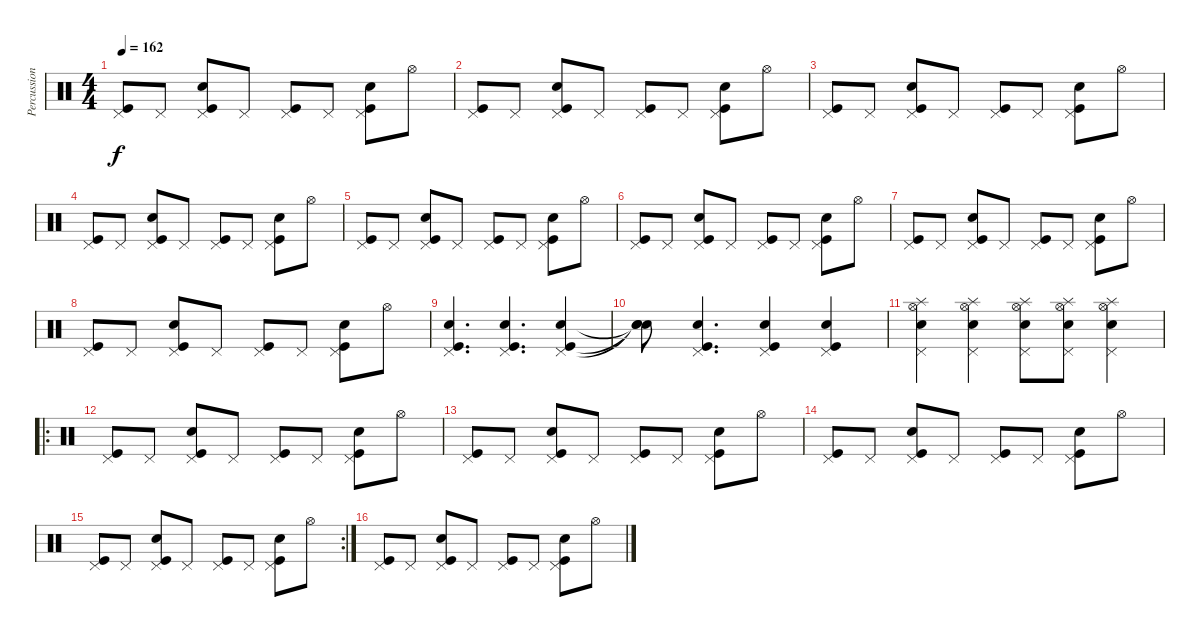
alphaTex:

\track ("Percussion" "Percussion") {instrument percussion}
\staff {score}
\articulation defaults
\ts (4 4)
\tempo 162
\clef neutral
\ks c
("Pedal Hi-Hat (hit)" "Kick (hit)").8{dy f} "Pedal Hi-Hat (hit)".8 ("Pedal Hi-Hat (hit)" "Snare (hit) 2" "Kick (hit)").8 "Pedal Hi-Hat (hit)".8 ("Pedal Hi-Hat (hit)" "Kick (hit)").8 "Pedal Hi-Hat (hit)".8 ("Pedal Hi-Hat (hit)" "Snare (hit) 2" "Kick (hit)").8 "Hi-Hat (open)".8 |
("Pedal Hi-Hat (hit)" "Kick (hit)").8 "Pedal Hi-Hat (hit)".8 ("Pedal Hi-Hat (hit)" "Snare (hit) 2" "Kick (hit)").8 "Pedal Hi-Hat (hit)".8 ("Pedal Hi-Hat (hit)" "Kick (hit)").8 "Pedal Hi-Hat (hit)".8 ("Pedal Hi-Hat (hit)" "Snare (hit) 2" "Kick (hit)").8 "Hi-Hat (open)".8 |
("Pedal Hi-Hat (hit)" "Kick (hit)").8 "Pedal Hi-Hat (hit)".8 ("Pedal Hi-Hat (hit)" "Snare (hit) 2" "Kick (hit)").8 "Pedal Hi-Hat (hit)".8 ("Pedal Hi-Hat (hit)" "Kick (hit)").8 "Pedal Hi-Hat (hit)".8 ("Pedal Hi-Hat (hit)" "Snare (hit) 2" "Kick (hit)").8 "Hi-Hat (open)".8 |
("Pedal Hi-Hat (hit)" "Kick (hit)").8 "Pedal Hi-Hat (hit)".8 ("Pedal Hi-Hat (hit)" "Snare (hit) 2" "Kick (hit)").8 "Pedal Hi-Hat (hit)".8 ("Pedal Hi-Hat (hit)" "Kick (hit)").8 "Pedal Hi-Hat (hit)".8 ("Pedal Hi-Hat (hit)" "Snare (hit) 2" "Kick (hit)").8 "Hi-Hat (open)".8 |
("Pedal Hi-Hat (hit)" "Kick (hit)").8 "Pedal Hi-Hat (hit)".8 ("Pedal Hi-Hat (hit)" "Snare (hit) 2" "Kick (hit)").8 "Pedal Hi-Hat (hit)".8 ("Pedal Hi-Hat (hit)" "Kick (hit)").8 "Pedal Hi-Hat (hit)".8 ("Pedal Hi-Hat (hit)" "Snare (hit) 2" "Kick (hit)").8 "Hi-Hat (open)".8 |
("Pedal Hi-Hat (hit)" "Kick (hit)").8 "Pedal Hi-Hat (hit)".8 ("Pedal Hi-Hat (hit)" "Snare (hit) 2" "Kick (hit)").8 "Pedal Hi-Hat (hit)".8 ("Pedal Hi-Hat (hit)" "Kick (hit)").8 "Pedal Hi-Hat (hit)".8 ("Pedal Hi-Hat (hit)" "Snare (hit) 2" "Kick (hit)").8 "Hi-Hat (open)".8 |
("Pedal Hi-Hat (hit)" "Kick (hit)").8 "Pedal Hi-Hat (hit)".8 ("Pedal Hi-Hat (hit)" "Snare (hit) 2" "Kick (hit)").8 "Pedal Hi-Hat (hit)".8 ("Pedal Hi-Hat (hit)" "Kick (hit)").8 "Pedal Hi-Hat (hit)".8 ("Pedal Hi-Hat (hit)" "Snare (hit) 2" "Kick (hit)").8 "Hi-Hat (open)".8 |
("Pedal Hi-Hat (hit)" "Kick (hit)").8 "Pedal Hi-Hat (hit)".8 ("Pedal Hi-Hat (hit)" "Snare (hit) 2" "Kick (hit)").8 "Pedal Hi-Hat (hit)".8 ("Pedal Hi-Hat (hit)" "Kick (hit)").8 "Pedal Hi-Hat (hit)".8 ("Pedal Hi-Hat (hit)" "Snare (hit) 2" "Kick (hit)").8 "Hi-Hat (open)".8 |
("Pedal Hi-Hat (hit)" "Snare (hit) 2" "Kick (hit)").4{d} ("Pedal Hi-Hat (hit)" "Snare (hit) 2" "Kick (hit)").4{d} ("Pedal Hi-Hat (hit)" "Snare (hit) 2" "Kick (hit)").4 |
("Snare (hit)"{t} "Snare (hit)"{t} "Snare (hit)"{t}).8 ("Pedal Hi-Hat (hit)" "Snare (hit) 2" "Kick (hit)").4{d} ("Pedal Hi-Hat (hit)" "Snare (hit) 2" "Kick (hit)").4 ("Pedal Hi-Hat (hit)" "Snare (hit) 2" "Kick (hit)").4 |
("Pedal Hi-Hat (hit)" "Snare (hit) 2" "Hi-Hat (open)" "Splash (hit)").4 ("Pedal Hi-Hat (hit)" "Snare (hit) 2" "Hi-Hat (open)" "Splash (hit)").4 ("Pedal Hi-Hat (hit)" "Snare (hit) 2" "Hi-Hat (open)" "Splash (hit)").8 ("Pedal Hi-Hat (hit)" "Snare (hit) 2" "Hi-Hat (open)" "Splash (hit)").8 ("Pedal Hi-Hat (hit)" "Snare (hit) 2" "Hi-Hat (open)" "Splash (hit)").4 |
\ro
("Pedal Hi-Hat (hit)" "Kick (hit)").8 "Pedal Hi-Hat (hit)".8 ("Pedal Hi-Hat (hit)" "Snare (hit) 2" "Kick (hit)").8 "Pedal Hi-Hat (hit)".8 ("Pedal Hi-Hat (hit)" "Kick (hit)").8 "Pedal Hi-Hat (hit)".8 ("Pedal Hi-Hat (hit)" "Snare (hit) 2" "Kick (hit)").8 "Hi-Hat (open)".8 |
("Pedal Hi-Hat (hit)" "Kick (hit)").8 "Pedal Hi-Hat (hit)".8 ("Pedal Hi-Hat (hit)" "Snare (hit) 2" "Kick (hit)").8 "Pedal Hi-Hat (hit)".8 ("Pedal Hi-Hat (hit)" "Kick (hit)").8 "Pedal Hi-Hat (hit)".8 ("Pedal Hi-Hat (hit)" "Snare (hit) 2" "Kick (hit)").8 "Hi-Hat (open)".8 |
("Pedal Hi-Hat (hit)" "Kick (hit)").8 "Pedal Hi-Hat (hit)".8 ("Pedal Hi-Hat (hit)" "Snare (hit) 2" "Kick (hit)").8 "Pedal Hi-Hat (hit)".8 ("Pedal Hi-Hat (hit)" "Kick (hit)").8 "Pedal Hi-Hat (hit)".8 ("Pedal Hi-Hat (hit)" "Snare (hit) 2" "Kick (hit)").8 "Hi-Hat (open)".8 |
\rc 2
("Pedal Hi-Hat (hit)" "Kick (hit)").8 "Pedal Hi-Hat (hit)".8 ("Pedal Hi-Hat (hit)" "Snare (hit) 2" "Kick (hit)").8 "Pedal Hi-Hat (hit)".8 ("Pedal Hi-Hat (hit)" "Kick (hit)").8 "Pedal Hi-Hat (hit)".8 ("Pedal Hi-Hat (hit)" "Snare (hit) 2" "Kick (hit)").8 "Hi-Hat (open)".8 |
("Pedal Hi-Hat (hit)" "Kick (hit)").8 "Pedal Hi-Hat (hit)".8 ("Pedal Hi-Hat (hit)" "Snare (hit) 2" "Kick (hit)").8 "Pedal Hi-Hat (hit)".8 ("Pedal Hi-Hat (hit)" "Kick (hit)").8 "Pedal Hi-Hat (hit)".8 ("Pedal Hi-Hat (hit)" "Snare (hit) 2" "Kick (hit)").8 "Hi-Hat (open)".8
